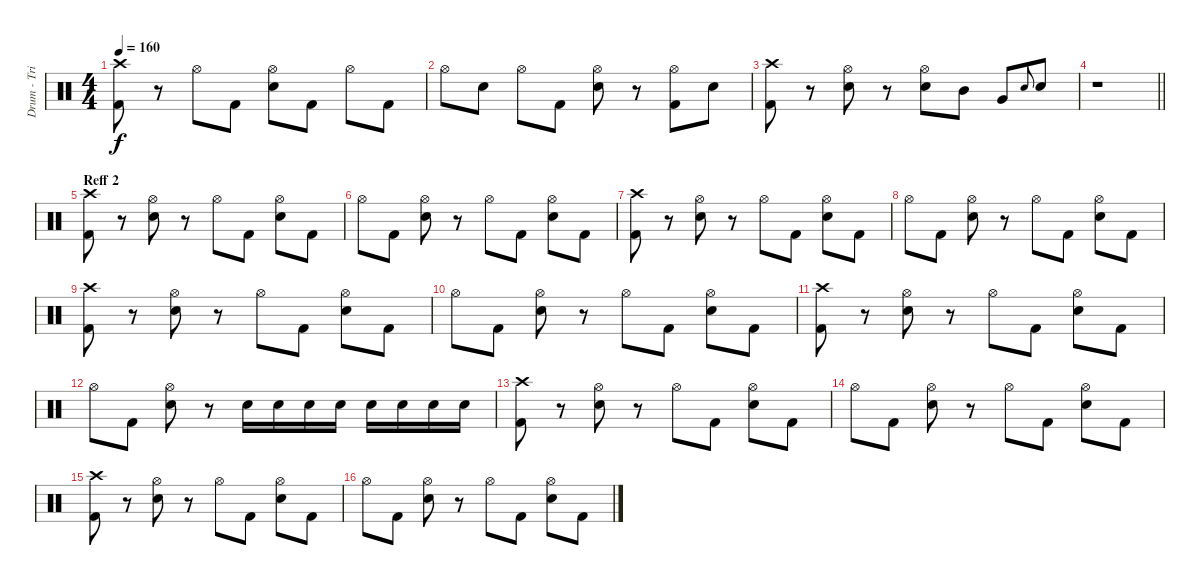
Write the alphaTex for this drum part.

\track ("Drum - Trian" "Drum - Tri") {instrument percussion}
\staff {score}
\articulation defaults
\ts (4 4)
\tempo 160
\clef neutral
\ks c
("Crash high (hit)" "Kick (hit) 2").8{dy f} r.8 "Hi-Hat (open)".8 "Kick (hit) 2".8 ("Hi-Hat (open)" "Electric Snare (hit)").8 "Kick (hit) 2".8 "Hi-Hat (open)".8 "Kick (hit) 2".8 |
"Hi-Hat (open)".8 "Electric Snare (hit)".8 "Hi-Hat (open)".8 "Kick (hit) 2".8 ("Hi-Hat (open)" "Electric Snare (hit)").8 r.8 ("Hi-Hat (open)" "Kick (hit) 2").8 "Electric Snare (hit)".8 |
("Crash high (hit)" "Kick (hit) 2").8 r.8 ("Hi-Hat (open)" "Electric Snare (hit)").8 r.8 ("Hi-Hat (open)" "Electric Snare (hit)").8 "Mid Tom (hit)".8 "Very Low Tom (hit)".8 "Electric Snare (hit)".8{gr onbeat} "Electric Snare (hit)".8 |
\barLineRight lightlight
r.1 |
\section ("" "Reff 2")
("Crash high (hit)" "Kick (hit) 2").8 r.8 ("Hi-Hat (open)" "Electric Snare (hit)").8 r.8 "Hi-Hat (open)".8 "Kick (hit) 2".8 ("Hi-Hat (open)" "Electric Snare (hit)").8 "Kick (hit) 2".8 |
"Hi-Hat (open)".8 "Kick (hit) 2".8 ("Hi-Hat (open)" "Electric Snare (hit)").8 r.8 "Hi-Hat (open)".8 "Kick (hit) 2".8 ("Hi-Hat (open)" "Electric Snare (hit)").8 "Kick (hit) 2".8 |
("Crash high (hit)" "Kick (hit) 2").8 r.8 ("Hi-Hat (open)" "Electric Snare (hit)").8 r.8 "Hi-Hat (open)".8 "Kick (hit) 2".8 ("Hi-Hat (open)" "Electric Snare (hit)").8 "Kick (hit) 2".8 |
"Hi-Hat (open)".8 "Kick (hit) 2".8 ("Hi-Hat (open)" "Electric Snare (hit)").8 r.8 "Hi-Hat (open)".8 "Kick (hit) 2".8 ("Hi-Hat (open)" "Electric Snare (hit)").8 "Kick (hit) 2".8 |
("Crash high (hit)" "Kick (hit) 2").8 r.8 ("Hi-Hat (open)" "Electric Snare (hit)").8 r.8 "Hi-Hat (open)".8 "Kick (hit) 2".8 ("Hi-Hat (open)" "Electric Snare (hit)").8 "Kick (hit) 2".8 |
"Hi-Hat (open)".8 "Kick (hit) 2".8 ("Hi-Hat (open)" "Electric Snare (hit)").8 r.8 "Hi-Hat (open)".8 "Kick (hit) 2".8 ("Hi-Hat (open)" "Electric Snare (hit)").8 "Kick (hit) 2".8 |
("Crash high (hit)" "Kick (hit) 2").8 r.8 ("Hi-Hat (open)" "Electric Snare (hit)").8 r.8 "Hi-Hat (open)".8 "Kick (hit) 2".8 ("Hi-Hat (open)" "Electric Snare (hit)").8 "Kick (hit) 2".8 |
"Hi-Hat (open)".8 "Kick (hit) 2".8 ("Hi-Hat (open)" "Electric Snare (hit)").8 r.8 "Electric Snare (hit)".16 "Electric Snare (hit)".16 "Electric Snare (hit)".16 "Electric Snare (hit)".16 "Electric Snare (hit)".16 "Electric Snare (hit)".16 "Electric Snare (hit)".16 "Electric Snare (hit)".16 |
("Crash high (hit)" "Kick (hit) 2").8 r.8 ("Hi-Hat (open)" "Electric Snare (hit)").8 r.8 "Hi-Hat (open)".8 "Kick (hit) 2".8 ("Hi-Hat (open)" "Electric Snare (hit)").8 "Kick (hit) 2".8 |
"Hi-Hat (open)".8 "Kick (hit) 2".8 ("Hi-Hat (open)" "Electric Snare (hit)").8 r.8 "Hi-Hat (open)".8 "Kick (hit) 2".8 ("Hi-Hat (open)" "Electric Snare (hit)").8 "Kick (hit) 2".8 |
("Crash high (hit)" "Kick (hit) 2").8 r.8 ("Hi-Hat (open)" "Electric Snare (hit)").8 r.8 "Hi-Hat (open)".8 "Kick (hit) 2".8 ("Hi-Hat (open)" "Electric Snare (hit)").8 "Kick (hit) 2".8 |
"Hi-Hat (open)".8 "Kick (hit) 2".8 ("Hi-Hat (open)" "Electric Snare (hit)").8 r.8 "Hi-Hat (open)".8 "Kick (hit) 2".8 ("Hi-Hat (open)" "Electric Snare (hit)").8 "Kick (hit) 2".8
